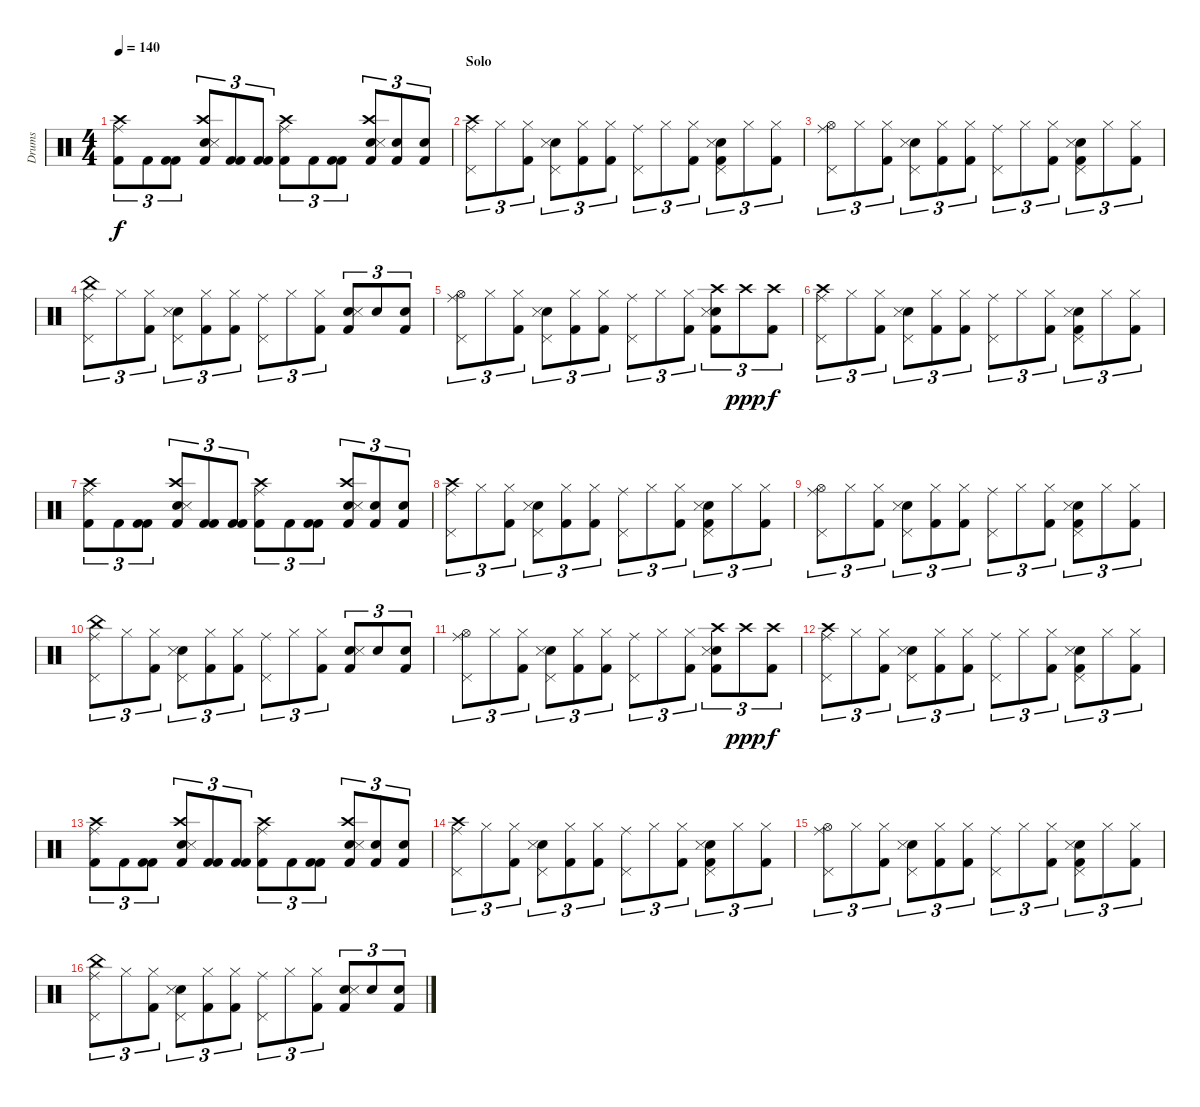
\track ("Drums" "Drums") {instrument percussion}
\staff {score}
\articulation defaults
\ts (4 4)
\tempo 140
\clef neutral
\ks c
("Kick (hit) 2" "Ride (middle)" "Crash high (hit)").8{tu (3 2) dy f} "Kick (hit) 2".8{tu (3 2)} ("Kick (hit) 2" "Kick (hit) 2").8{tu (3 2)} ("Kick (hit) 2" "Electric Snare (hit)" "Snare (side stick) 3" "Crash high (hit)").8{tu (3 2)} ("Kick (hit) 2" "Kick (hit) 2").8{tu (3 2)} ("Kick (hit) 2" "Kick (hit) 2").8{tu (3 2)} ("Kick (hit) 2" "Ride (middle)" "Crash high (hit)").8{tu (3 2)} "Kick (hit) 2".8{tu (3 2)} ("Kick (hit) 2" "Kick (hit) 2").8{tu (3 2)} ("Kick (hit) 2" "Electric Snare (hit)" "Snare (side stick) 3" "Crash high (hit)").8{tu (3 2)} ("Kick (hit) 2" "Electric Snare (hit)").8{tu (3 2)} ("Kick (hit) 2" "Electric Snare (hit)").8{tu (3 2)} |
\section ("" "Solo")
("Pedal Hi-Hat (hit)" "Ride (middle)" "Crash high (hit)").8{tu (3 2)} "Hi-Hat (closed)".8{tu (3 2)} ("Hi-Hat (closed)" "Kick (hit) 2").8{tu (3 2)} ("Pedal Hi-Hat (hit)" "Electric Snare (hit)" "Snare (side stick) 3").8{tu (3 2)} ("Hi-Hat (closed)" "Kick (hit) 2").8{tu (3 2)} ("Hi-Hat (closed)" "Kick (hit) 2").8{tu (3 2)} ("Pedal Hi-Hat (hit)" "Ride (middle)").8{tu (3 2)} "Hi-Hat (closed)".8{tu (3 2)} ("Hi-Hat (closed)" "Kick (hit) 2").8{tu (3 2)} ("Pedal Hi-Hat (hit)" "Electric Snare (hit)" "Snare (side stick) 3" "Kick (hit) 2").8{tu (3 2)} "Hi-Hat (closed)".8{tu (3 2)} ("Hi-Hat (closed)" "Kick (hit) 2").8{tu (3 2)} |
("Pedal Hi-Hat (hit)" "Ride (middle)" "Hi-Hat (open)").8{tu (3 2)} "Hi-Hat (closed)".8{tu (3 2)} ("Hi-Hat (closed)" "Kick (hit) 2").8{tu (3 2)} ("Pedal Hi-Hat (hit)" "Electric Snare (hit)" "Snare (side stick) 3").8{tu (3 2)} ("Hi-Hat (closed)" "Kick (hit) 2").8{tu (3 2)} ("Hi-Hat (closed)" "Kick (hit) 2").8{tu (3 2)} ("Pedal Hi-Hat (hit)" "Ride (middle)").8{tu (3 2)} "Hi-Hat (closed)".8{tu (3 2)} ("Hi-Hat (closed)" "Kick (hit) 2").8{tu (3 2)} ("Pedal Hi-Hat (hit)" "Electric Snare (hit)" "Snare (side stick) 3" "Kick (hit) 2").8{tu (3 2)} "Hi-Hat (closed)".8{tu (3 2)} ("Hi-Hat (closed)" "Kick (hit) 2").8{tu (3 2)} |
("Pedal Hi-Hat (hit)" "Ride (middle)" "China (hit)").8{tu (3 2)} "Hi-Hat (closed)".8{tu (3 2)} ("Hi-Hat (closed)" "Kick (hit) 2").8{tu (3 2)} ("Pedal Hi-Hat (hit)" "Electric Snare (hit)" "Snare (side stick) 3").8{tu (3 2)} ("Hi-Hat (closed)" "Kick (hit) 2").8{tu (3 2)} ("Hi-Hat (closed)" "Kick (hit) 2").8{tu (3 2)} ("Pedal Hi-Hat (hit)" "Ride (middle)").8{tu (3 2)} "Hi-Hat (closed)".8{tu (3 2)} ("Hi-Hat (closed)" "Kick (hit) 2").8{tu (3 2)} ("Electric Snare (hit)" "Snare (side stick) 3" "Kick (hit) 2").8{tu (3 2)} "Electric Snare (hit)".8{tu (3 2)} ("Electric Snare (hit)" "Kick (hit) 2").8{tu (3 2)} |
("Pedal Hi-Hat (hit)" "Ride (middle)" "Hi-Hat (open)").8{tu (3 2)} "Hi-Hat (closed)".8{tu (3 2)} ("Hi-Hat (closed)" "Kick (hit) 2").8{tu (3 2)} ("Pedal Hi-Hat (hit)" "Electric Snare (hit)" "Snare (side stick) 3").8{tu (3 2)} ("Hi-Hat (closed)" "Kick (hit) 2").8{tu (3 2)} ("Hi-Hat (closed)" "Kick (hit) 2").8{tu (3 2)} ("Pedal Hi-Hat (hit)" "Ride (middle)").8{tu (3 2)} "Hi-Hat (closed)".8{tu (3 2)} ("Hi-Hat (closed)" "Kick (hit) 2").8{tu (3 2)} ("Crash high (hit)" "Electric Snare (hit)" "Snare (side stick) 3" "Kick (hit) 2").8{tu (3 2)} "Crash high (hit)".8{tu (3 2) dy ppp} ("Crash high (hit)" "Kick (hit) 2").8{tu (3 2) dy f} |
("Pedal Hi-Hat (hit)" "Ride (middle)" "Crash high (hit)").8{tu (3 2)} "Hi-Hat (closed)".8{tu (3 2)} ("Hi-Hat (closed)" "Kick (hit) 2").8{tu (3 2)} ("Pedal Hi-Hat (hit)" "Electric Snare (hit)" "Snare (side stick) 3").8{tu (3 2)} ("Hi-Hat (closed)" "Kick (hit) 2").8{tu (3 2)} ("Hi-Hat (closed)" "Kick (hit) 2").8{tu (3 2)} ("Pedal Hi-Hat (hit)" "Ride (middle)").8{tu (3 2)} "Hi-Hat (closed)".8{tu (3 2)} ("Hi-Hat (closed)" "Kick (hit) 2").8{tu (3 2)} ("Pedal Hi-Hat (hit)" "Electric Snare (hit)" "Snare (side stick) 3" "Kick (hit) 2").8{tu (3 2)} "Hi-Hat (closed)".8{tu (3 2)} ("Hi-Hat (closed)" "Kick (hit) 2").8{tu (3 2)} |
("Kick (hit) 2" "Ride (middle)" "Crash high (hit)").8{tu (3 2)} "Kick (hit) 2".8{tu (3 2)} ("Kick (hit) 2" "Kick (hit) 2").8{tu (3 2)} ("Kick (hit) 2" "Electric Snare (hit)" "Snare (side stick) 3" "Crash high (hit)").8{tu (3 2)} ("Kick (hit) 2" "Kick (hit) 2").8{tu (3 2)} ("Kick (hit) 2" "Kick (hit) 2").8{tu (3 2)} ("Kick (hit) 2" "Ride (middle)" "Crash high (hit)").8{tu (3 2)} "Kick (hit) 2".8{tu (3 2)} ("Kick (hit) 2" "Kick (hit) 2").8{tu (3 2)} ("Kick (hit) 2" "Electric Snare (hit)" "Snare (side stick) 3" "Crash high (hit)").8{tu (3 2)} ("Kick (hit) 2" "Electric Snare (hit)").8{tu (3 2)} ("Kick (hit) 2" "Electric Snare (hit)").8{tu (3 2)} |
("Pedal Hi-Hat (hit)" "Ride (middle)" "Crash high (hit)").8{tu (3 2)} "Hi-Hat (closed)".8{tu (3 2)} ("Hi-Hat (closed)" "Kick (hit) 2").8{tu (3 2)} ("Pedal Hi-Hat (hit)" "Electric Snare (hit)" "Snare (side stick) 3").8{tu (3 2)} ("Hi-Hat (closed)" "Kick (hit) 2").8{tu (3 2)} ("Hi-Hat (closed)" "Kick (hit) 2").8{tu (3 2)} ("Pedal Hi-Hat (hit)" "Ride (middle)").8{tu (3 2)} "Hi-Hat (closed)".8{tu (3 2)} ("Hi-Hat (closed)" "Kick (hit) 2").8{tu (3 2)} ("Pedal Hi-Hat (hit)" "Electric Snare (hit)" "Snare (side stick) 3" "Kick (hit) 2").8{tu (3 2)} "Hi-Hat (closed)".8{tu (3 2)} ("Hi-Hat (closed)" "Kick (hit) 2").8{tu (3 2)} |
("Pedal Hi-Hat (hit)" "Ride (middle)" "Hi-Hat (open)").8{tu (3 2)} "Hi-Hat (closed)".8{tu (3 2)} ("Hi-Hat (closed)" "Kick (hit) 2").8{tu (3 2)} ("Pedal Hi-Hat (hit)" "Electric Snare (hit)" "Snare (side stick) 3").8{tu (3 2)} ("Hi-Hat (closed)" "Kick (hit) 2").8{tu (3 2)} ("Hi-Hat (closed)" "Kick (hit) 2").8{tu (3 2)} ("Pedal Hi-Hat (hit)" "Ride (middle)").8{tu (3 2)} "Hi-Hat (closed)".8{tu (3 2)} ("Hi-Hat (closed)" "Kick (hit) 2").8{tu (3 2)} ("Pedal Hi-Hat (hit)" "Electric Snare (hit)" "Snare (side stick) 3" "Kick (hit) 2").8{tu (3 2)} "Hi-Hat (closed)".8{tu (3 2)} ("Hi-Hat (closed)" "Kick (hit) 2").8{tu (3 2)} |
("Pedal Hi-Hat (hit)" "Ride (middle)" "China (hit)").8{tu (3 2)} "Hi-Hat (closed)".8{tu (3 2)} ("Hi-Hat (closed)" "Kick (hit) 2").8{tu (3 2)} ("Pedal Hi-Hat (hit)" "Electric Snare (hit)" "Snare (side stick) 3").8{tu (3 2)} ("Hi-Hat (closed)" "Kick (hit) 2").8{tu (3 2)} ("Hi-Hat (closed)" "Kick (hit) 2").8{tu (3 2)} ("Pedal Hi-Hat (hit)" "Ride (middle)").8{tu (3 2)} "Hi-Hat (closed)".8{tu (3 2)} ("Hi-Hat (closed)" "Kick (hit) 2").8{tu (3 2)} ("Electric Snare (hit)" "Snare (side stick) 3" "Kick (hit) 2").8{tu (3 2)} "Electric Snare (hit)".8{tu (3 2)} ("Electric Snare (hit)" "Kick (hit) 2").8{tu (3 2)} |
("Pedal Hi-Hat (hit)" "Ride (middle)" "Hi-Hat (open)").8{tu (3 2)} "Hi-Hat (closed)".8{tu (3 2)} ("Hi-Hat (closed)" "Kick (hit) 2").8{tu (3 2)} ("Pedal Hi-Hat (hit)" "Electric Snare (hit)" "Snare (side stick) 3").8{tu (3 2)} ("Hi-Hat (closed)" "Kick (hit) 2").8{tu (3 2)} ("Hi-Hat (closed)" "Kick (hit) 2").8{tu (3 2)} ("Pedal Hi-Hat (hit)" "Ride (middle)").8{tu (3 2)} "Hi-Hat (closed)".8{tu (3 2)} ("Hi-Hat (closed)" "Kick (hit) 2").8{tu (3 2)} ("Crash high (hit)" "Electric Snare (hit)" "Snare (side stick) 3" "Kick (hit) 2").8{tu (3 2)} "Crash high (hit)".8{tu (3 2) dy ppp} ("Crash high (hit)" "Kick (hit) 2").8{tu (3 2) dy f} |
("Pedal Hi-Hat (hit)" "Ride (middle)" "Crash high (hit)").8{tu (3 2)} "Hi-Hat (closed)".8{tu (3 2)} ("Hi-Hat (closed)" "Kick (hit) 2").8{tu (3 2)} ("Pedal Hi-Hat (hit)" "Electric Snare (hit)" "Snare (side stick) 3").8{tu (3 2)} ("Hi-Hat (closed)" "Kick (hit) 2").8{tu (3 2)} ("Hi-Hat (closed)" "Kick (hit) 2").8{tu (3 2)} ("Pedal Hi-Hat (hit)" "Ride (middle)").8{tu (3 2)} "Hi-Hat (closed)".8{tu (3 2)} ("Hi-Hat (closed)" "Kick (hit) 2").8{tu (3 2)} ("Pedal Hi-Hat (hit)" "Electric Snare (hit)" "Snare (side stick) 3" "Kick (hit) 2").8{tu (3 2)} "Hi-Hat (closed)".8{tu (3 2)} ("Hi-Hat (closed)" "Kick (hit) 2").8{tu (3 2)} |
("Kick (hit) 2" "Ride (middle)" "Crash high (hit)").8{tu (3 2)} "Kick (hit) 2".8{tu (3 2)} ("Kick (hit) 2" "Kick (hit) 2").8{tu (3 2)} ("Kick (hit) 2" "Electric Snare (hit)" "Snare (side stick) 3" "Crash high (hit)").8{tu (3 2)} ("Kick (hit) 2" "Kick (hit) 2").8{tu (3 2)} ("Kick (hit) 2" "Kick (hit) 2").8{tu (3 2)} ("Kick (hit) 2" "Ride (middle)" "Crash high (hit)").8{tu (3 2)} "Kick (hit) 2".8{tu (3 2)} ("Kick (hit) 2" "Kick (hit) 2").8{tu (3 2)} ("Kick (hit) 2" "Electric Snare (hit)" "Snare (side stick) 3" "Crash high (hit)").8{tu (3 2)} ("Kick (hit) 2" "Electric Snare (hit)").8{tu (3 2)} ("Kick (hit) 2" "Electric Snare (hit)").8{tu (3 2)} |
("Pedal Hi-Hat (hit)" "Ride (middle)" "Crash high (hit)").8{tu (3 2)} "Hi-Hat (closed)".8{tu (3 2)} ("Hi-Hat (closed)" "Kick (hit) 2").8{tu (3 2)} ("Pedal Hi-Hat (hit)" "Electric Snare (hit)" "Snare (side stick) 3").8{tu (3 2)} ("Hi-Hat (closed)" "Kick (hit) 2").8{tu (3 2)} ("Hi-Hat (closed)" "Kick (hit) 2").8{tu (3 2)} ("Pedal Hi-Hat (hit)" "Ride (middle)").8{tu (3 2)} "Hi-Hat (closed)".8{tu (3 2)} ("Hi-Hat (closed)" "Kick (hit) 2").8{tu (3 2)} ("Pedal Hi-Hat (hit)" "Electric Snare (hit)" "Snare (side stick) 3" "Kick (hit) 2").8{tu (3 2)} "Hi-Hat (closed)".8{tu (3 2)} ("Hi-Hat (closed)" "Kick (hit) 2").8{tu (3 2)} |
("Pedal Hi-Hat (hit)" "Ride (middle)" "Hi-Hat (open)").8{tu (3 2)} "Hi-Hat (closed)".8{tu (3 2)} ("Hi-Hat (closed)" "Kick (hit) 2").8{tu (3 2)} ("Pedal Hi-Hat (hit)" "Electric Snare (hit)" "Snare (side stick) 3").8{tu (3 2)} ("Hi-Hat (closed)" "Kick (hit) 2").8{tu (3 2)} ("Hi-Hat (closed)" "Kick (hit) 2").8{tu (3 2)} ("Pedal Hi-Hat (hit)" "Ride (middle)").8{tu (3 2)} "Hi-Hat (closed)".8{tu (3 2)} ("Hi-Hat (closed)" "Kick (hit) 2").8{tu (3 2)} ("Pedal Hi-Hat (hit)" "Electric Snare (hit)" "Snare (side stick) 3" "Kick (hit) 2").8{tu (3 2)} "Hi-Hat (closed)".8{tu (3 2)} ("Hi-Hat (closed)" "Kick (hit) 2").8{tu (3 2)} |
("Pedal Hi-Hat (hit)" "Ride (middle)" "China (hit)").8{tu (3 2)} "Hi-Hat (closed)".8{tu (3 2)} ("Hi-Hat (closed)" "Kick (hit) 2").8{tu (3 2)} ("Pedal Hi-Hat (hit)" "Electric Snare (hit)" "Snare (side stick) 3").8{tu (3 2)} ("Hi-Hat (closed)" "Kick (hit) 2").8{tu (3 2)} ("Hi-Hat (closed)" "Kick (hit) 2").8{tu (3 2)} ("Pedal Hi-Hat (hit)" "Ride (middle)").8{tu (3 2)} "Hi-Hat (closed)".8{tu (3 2)} ("Hi-Hat (closed)" "Kick (hit) 2").8{tu (3 2)} ("Electric Snare (hit)" "Snare (side stick) 3" "Kick (hit) 2").8{tu (3 2)} "Electric Snare (hit)".8{tu (3 2)} ("Electric Snare (hit)" "Kick (hit) 2").8{tu (3 2)}
